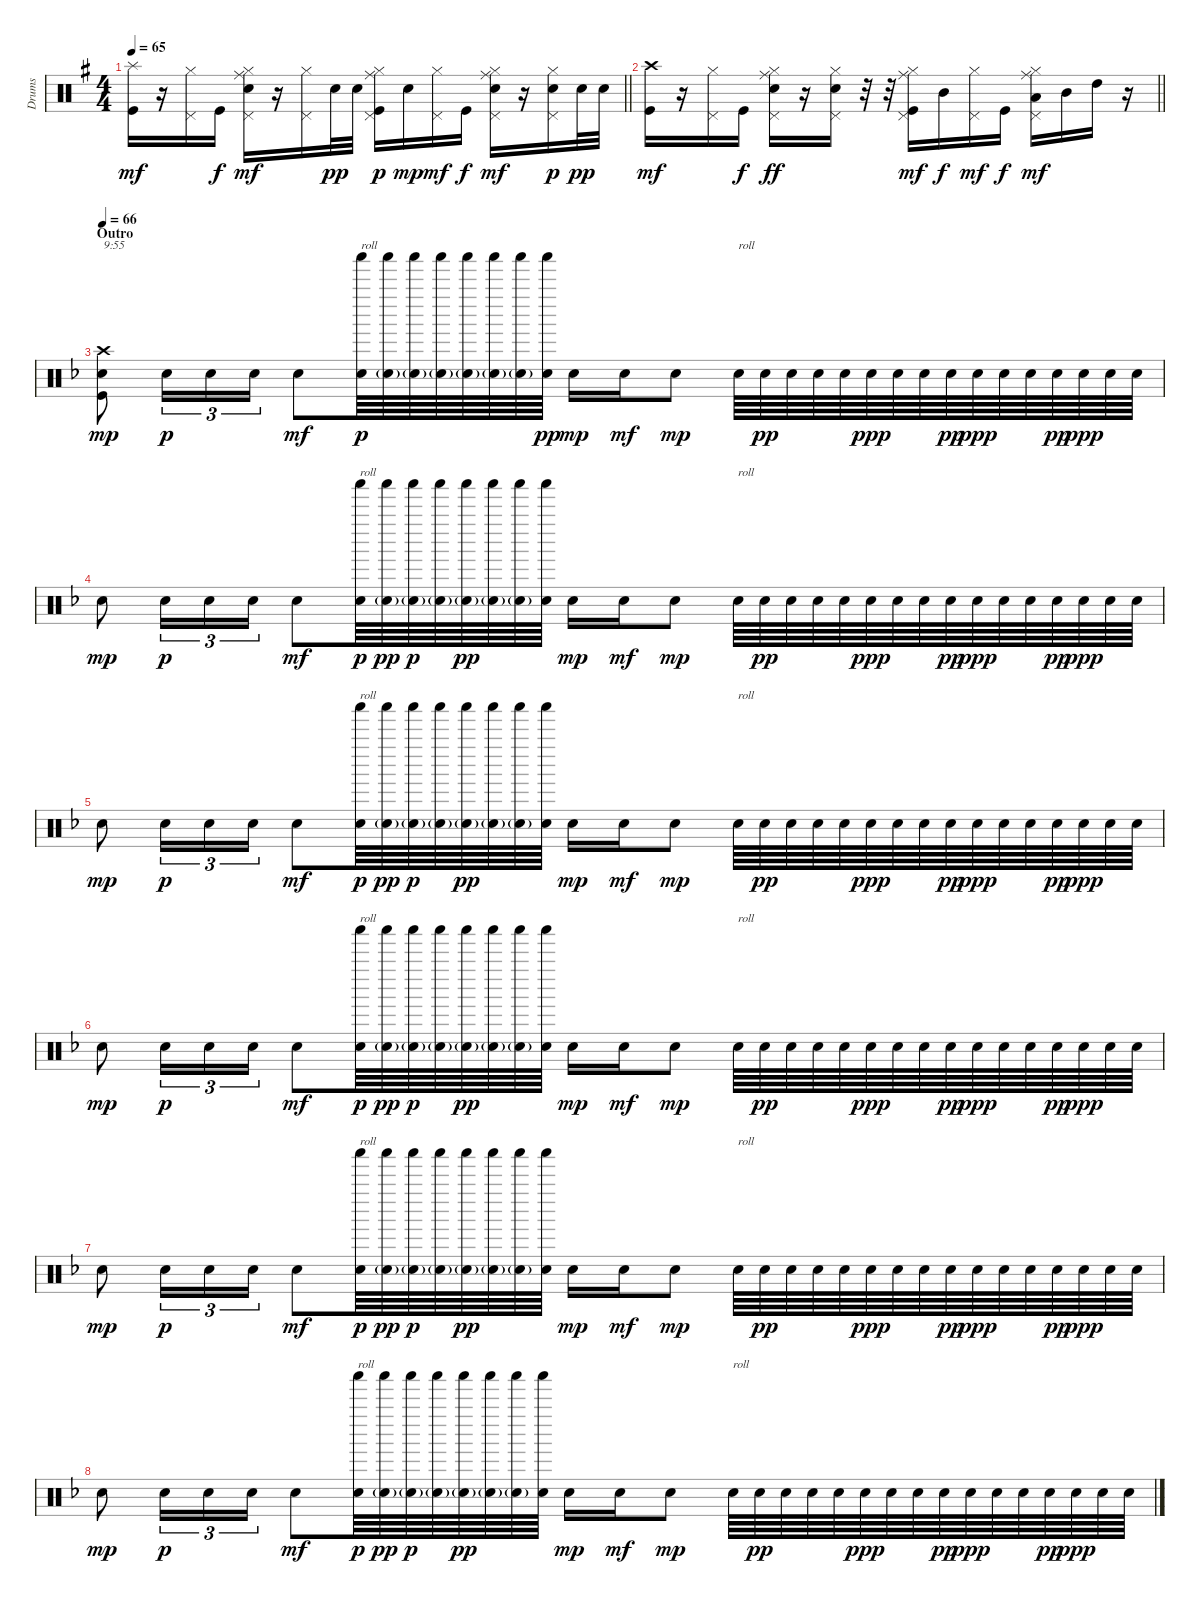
\track ("Drums" "Drums") {instrument percussion}
\staff {score}
\articulation defaults
\ts (4 4)
\tempo 65
\clef neutral
\barLineRight lightlight
\ks eminor
("Splash (hit)" "Kick (hit)").16{dy mf} r.16 ("Hi-Hat (closed)" "Pedal Hi-Hat (hit)").16 "Kick (hit)".16{dy f} ("Ride (middle)" "Hi-Hat (closed)" "Pedal Hi-Hat (hit)" "Electric Snare (hit)").16{dy mf} r.16 ("Hi-Hat (closed)" "Pedal Hi-Hat (hit)").16 "Electric Snare (hit)".32{dy pp} "Electric Snare (hit)".32 ("Ride (middle)" "Hi-Hat (closed)" "Pedal Hi-Hat (hit)" "Kick (hit)").16{dy p} "Electric Snare (hit)".16{dy mp} ("Hi-Hat (closed)" "Pedal Hi-Hat (hit)").16{dy mf} "Kick (hit)".16{dy f} ("Ride (middle)" "Hi-Hat (closed)" "Pedal Hi-Hat (hit)" "Electric Snare (hit)").16{dy mf} r.16 ("Hi-Hat (closed)" "Pedal Hi-Hat (hit)" "Electric Snare (hit)").16{dy p} "Electric Snare (hit)".32{dy pp} "Electric Snare (hit)".32 |
\barLineRight lightlight
("Crash high (hit)" "Kick (hit)").16{dy mf} r.16 ("Hi-Hat (closed)" "Pedal Hi-Hat (hit)").16 "Kick (hit)".16{dy f} ("Ride (middle)" "Hi-Hat (closed)" "Pedal Hi-Hat (hit)" "Electric Snare (hit)").16{dy ff} r.16 ("Hi-Hat (closed)" "Pedal Hi-Hat (hit)" "Electric Snare (hit)").16 r.32 r.32 ("Ride (middle)" "Hi-Hat (closed)" "Pedal Hi-Hat (hit)" "Kick (hit)").16{dy mf} "Mid Tom (hit)".16{dy f} ("Hi-Hat (closed)" "Pedal Hi-Hat (hit)").16{dy mf} "Kick (hit)".16{dy f} ("Ride (middle)" "Hi-Hat (closed)" "Pedal Hi-Hat (hit)" "Low Tom (hit)").16{dy mf} "Mid Tom (hit)".16 "High Tom (hit)".16 r.16 |
\section ("" "Outro")
\tempo 66
\ks f
("Crash high (hit)" "Electric Snare (hit)" "Kick (hit)").8{txt "9:55" dy mp volume 9} "Electric Snare (hit)".16{tu (3 2) dy p} "Electric Snare (hit)".16{tu (3 2)} "Electric Snare (hit)".16{tu (3 2)} "Electric Snare (hit)".8{dy mf} ("Shaker (hit)" "Electric Snare (hit)").64{txt "roll" dy p} ("Shaker (hit)" "Electric Snare (hit)"{g}).64 ("Shaker (hit)" "Electric Snare (hit)"{g}).64 ("Shaker (hit)" "Electric Snare (hit)"{g}).64 ("Shaker (hit)" "Electric Snare (hit)"{g}).64 ("Shaker (hit)" "Electric Snare (hit)"{g}).64 ("Shaker (hit)" "Electric Snare (hit)"{g}).64 ("Shaker (hit)" "Electric Snare (hit)").64{dy pp} "Electric Snare (hit)".16{dy mp} "Electric Snare (hit)".16{dy mf} "Electric Snare (hit)".8{dy mp} "Electric Snare (hit)".64{txt "roll"} "Electric Snare (hit)".64{dy pp} "Electric Snare (hit)".64 "Electric Snare (hit)".64 "Electric Snare (hit)".64 "Electric Snare (hit)".64{dy ppp} "Electric Snare (hit)".64 "Electric Snare (hit)".64 "Electric Snare (hit)".64{dy pp} "Electric Snare (hit)".64{dy ppp} "Electric Snare (hit)".64 "Electric Snare (hit)".64 "Electric Snare (hit)".64{dy pp} "Electric Snare (hit)".64{dy ppp} "Electric Snare (hit)".64 "Electric Snare (hit)".64 |
"Electric Snare (hit)".8{dy mp} "Electric Snare (hit)".16{tu (3 2) dy p} "Electric Snare (hit)".16{tu (3 2)} "Electric Snare (hit)".16{tu (3 2)} "Electric Snare (hit)".8{dy mf} ("Shaker (hit)" "Electric Snare (hit)").64{txt "roll" dy p} ("Shaker (hit)" "Electric Snare (hit)"{g}).64{dy pp} ("Shaker (hit)" "Electric Snare (hit)"{g}).64{dy p} ("Shaker (hit)" "Electric Snare (hit)"{g}).64 ("Shaker (hit)" "Electric Snare (hit)"{g}).64{dy pp} ("Shaker (hit)" "Electric Snare (hit)"{g}).64 ("Shaker (hit)" "Electric Snare (hit)"{g}).64 ("Shaker (hit)" "Electric Snare (hit)").64 "Electric Snare (hit)".16{dy mp} "Electric Snare (hit)".16{dy mf} "Electric Snare (hit)".8{dy mp} "Electric Snare (hit)".64{txt "roll"} "Electric Snare (hit)".64{dy pp} "Electric Snare (hit)".64 "Electric Snare (hit)".64 "Electric Snare (hit)".64 "Electric Snare (hit)".64{dy ppp} "Electric Snare (hit)".64 "Electric Snare (hit)".64 "Electric Snare (hit)".64{dy pp} "Electric Snare (hit)".64{dy ppp} "Electric Snare (hit)".64 "Electric Snare (hit)".64 "Electric Snare (hit)".64{dy pp} "Electric Snare (hit)".64{dy ppp} "Electric Snare (hit)".64 "Electric Snare (hit)".64 |
"Electric Snare (hit)".8{dy mp} "Electric Snare (hit)".16{tu (3 2) dy p} "Electric Snare (hit)".16{tu (3 2)} "Electric Snare (hit)".16{tu (3 2)} "Electric Snare (hit)".8{dy mf} ("Shaker (hit)" "Electric Snare (hit)").64{txt "roll" dy p} ("Shaker (hit)" "Electric Snare (hit)"{g}).64{dy pp} ("Shaker (hit)" "Electric Snare (hit)"{g}).64{dy p} ("Shaker (hit)" "Electric Snare (hit)"{g}).64 ("Shaker (hit)" "Electric Snare (hit)"{g}).64{dy pp} ("Shaker (hit)" "Electric Snare (hit)"{g}).64 ("Shaker (hit)" "Electric Snare (hit)"{g}).64 ("Shaker (hit)" "Electric Snare (hit)").64 "Electric Snare (hit)".16{dy mp} "Electric Snare (hit)".16{dy mf} "Electric Snare (hit)".8{dy mp} "Electric Snare (hit)".64{txt "roll"} "Electric Snare (hit)".64{dy pp} "Electric Snare (hit)".64 "Electric Snare (hit)".64 "Electric Snare (hit)".64 "Electric Snare (hit)".64{dy ppp} "Electric Snare (hit)".64 "Electric Snare (hit)".64 "Electric Snare (hit)".64{dy pp} "Electric Snare (hit)".64{dy ppp} "Electric Snare (hit)".64 "Electric Snare (hit)".64 "Electric Snare (hit)".64{dy pp} "Electric Snare (hit)".64{dy ppp} "Electric Snare (hit)".64 "Electric Snare (hit)".64 |
"Electric Snare (hit)".8{dy mp} "Electric Snare (hit)".16{tu (3 2) dy p} "Electric Snare (hit)".16{tu (3 2)} "Electric Snare (hit)".16{tu (3 2)} "Electric Snare (hit)".8{dy mf} ("Shaker (hit)" "Electric Snare (hit)").64{txt "roll" dy p} ("Shaker (hit)" "Electric Snare (hit)"{g}).64{dy pp} ("Shaker (hit)" "Electric Snare (hit)"{g}).64{dy p} ("Shaker (hit)" "Electric Snare (hit)"{g}).64 ("Shaker (hit)" "Electric Snare (hit)"{g}).64{dy pp} ("Shaker (hit)" "Electric Snare (hit)"{g}).64 ("Shaker (hit)" "Electric Snare (hit)"{g}).64 ("Shaker (hit)" "Electric Snare (hit)").64 "Electric Snare (hit)".16{dy mp} "Electric Snare (hit)".16{dy mf} "Electric Snare (hit)".8{dy mp} "Electric Snare (hit)".64{txt "roll"} "Electric Snare (hit)".64{dy pp} "Electric Snare (hit)".64 "Electric Snare (hit)".64 "Electric Snare (hit)".64 "Electric Snare (hit)".64{dy ppp} "Electric Snare (hit)".64 "Electric Snare (hit)".64 "Electric Snare (hit)".64{dy pp} "Electric Snare (hit)".64{dy ppp} "Electric Snare (hit)".64 "Electric Snare (hit)".64 "Electric Snare (hit)".64{dy pp} "Electric Snare (hit)".64{dy ppp} "Electric Snare (hit)".64 "Electric Snare (hit)".64 |
"Electric Snare (hit)".8{dy mp} "Electric Snare (hit)".16{tu (3 2) dy p} "Electric Snare (hit)".16{tu (3 2)} "Electric Snare (hit)".16{tu (3 2)} "Electric Snare (hit)".8{dy mf} ("Shaker (hit)" "Electric Snare (hit)").64{txt "roll" dy p} ("Shaker (hit)" "Electric Snare (hit)"{g}).64{dy pp} ("Shaker (hit)" "Electric Snare (hit)"{g}).64{dy p} ("Shaker (hit)" "Electric Snare (hit)"{g}).64 ("Shaker (hit)" "Electric Snare (hit)"{g}).64{dy pp} ("Shaker (hit)" "Electric Snare (hit)"{g}).64 ("Shaker (hit)" "Electric Snare (hit)"{g}).64 ("Shaker (hit)" "Electric Snare (hit)").64 "Electric Snare (hit)".16{dy mp} "Electric Snare (hit)".16{dy mf} "Electric Snare (hit)".8{dy mp} "Electric Snare (hit)".64{txt "roll"} "Electric Snare (hit)".64{dy pp} "Electric Snare (hit)".64 "Electric Snare (hit)".64 "Electric Snare (hit)".64 "Electric Snare (hit)".64{dy ppp} "Electric Snare (hit)".64 "Electric Snare (hit)".64 "Electric Snare (hit)".64{dy pp} "Electric Snare (hit)".64{dy ppp} "Electric Snare (hit)".64 "Electric Snare (hit)".64 "Electric Snare (hit)".64{dy pp} "Electric Snare (hit)".64{dy ppp} "Electric Snare (hit)".64 "Electric Snare (hit)".64 |
"Electric Snare (hit)".8{dy mp} "Electric Snare (hit)".16{tu (3 2) dy p} "Electric Snare (hit)".16{tu (3 2)} "Electric Snare (hit)".16{tu (3 2)} "Electric Snare (hit)".8{dy mf} ("Shaker (hit)" "Electric Snare (hit)").64{txt "roll" dy p} ("Shaker (hit)" "Electric Snare (hit)"{g}).64{dy pp} ("Shaker (hit)" "Electric Snare (hit)"{g}).64{dy p} ("Shaker (hit)" "Electric Snare (hit)"{g}).64 ("Shaker (hit)" "Electric Snare (hit)"{g}).64{dy pp} ("Shaker (hit)" "Electric Snare (hit)"{g}).64 ("Shaker (hit)" "Electric Snare (hit)"{g}).64 ("Shaker (hit)" "Electric Snare (hit)").64 "Electric Snare (hit)".16{dy mp} "Electric Snare (hit)".16{dy mf} "Electric Snare (hit)".8{dy mp} "Electric Snare (hit)".64{txt "roll"} "Electric Snare (hit)".64{dy pp} "Electric Snare (hit)".64 "Electric Snare (hit)".64 "Electric Snare (hit)".64 "Electric Snare (hit)".64{dy ppp} "Electric Snare (hit)".64 "Electric Snare (hit)".64 "Electric Snare (hit)".64{dy pp} "Electric Snare (hit)".64{dy ppp} "Electric Snare (hit)".64 "Electric Snare (hit)".64 "Electric Snare (hit)".64{dy pp} "Electric Snare (hit)".64{dy ppp} "Electric Snare (hit)".64 "Electric Snare (hit)".64
